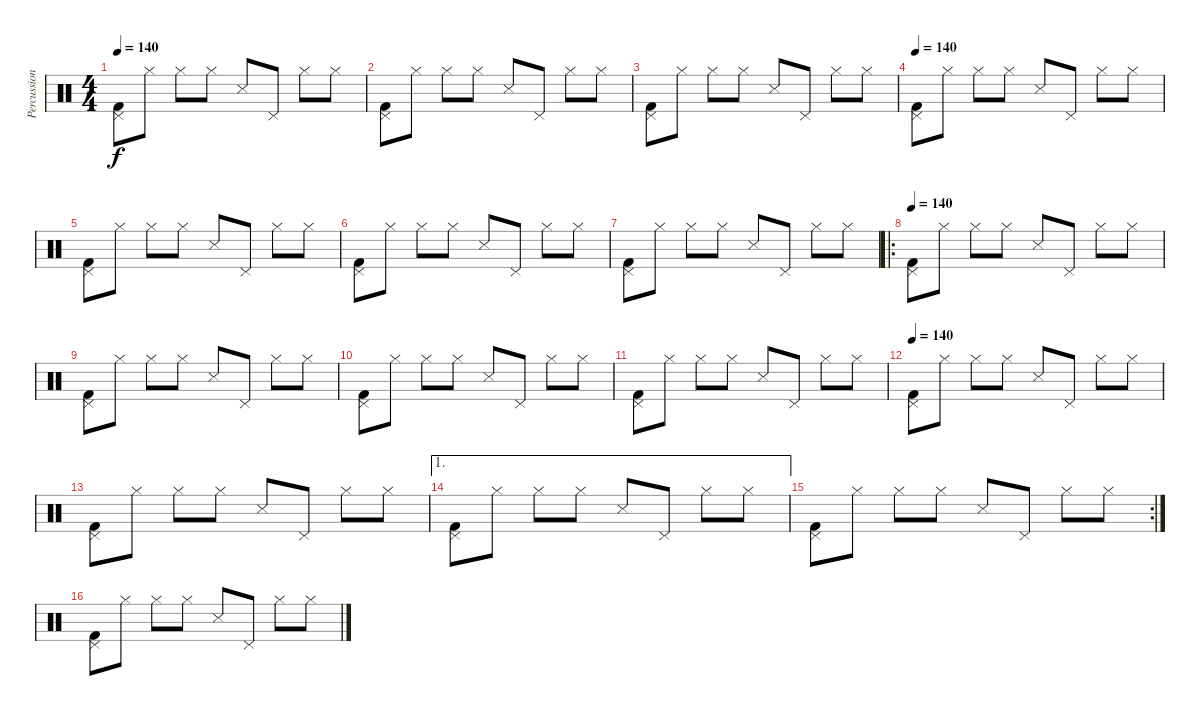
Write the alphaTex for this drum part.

\track ("Percussion" "Percussion") {instrument percussion}
\staff {score}
\articulation defaults
\ts (4 4)
\tempo 140
\clef neutral
\ks c
("Pedal Hi-Hat (hit)" "Kick (hit) 2").8{dy f volume 9} "Hi-Hat (closed)".8 "Hi-Hat (closed)".8 "Hi-Hat (closed)".8 "Snare (side stick) 3".8{volume 13} "Pedal Hi-Hat (hit)".8{volume 9} "Hi-Hat (closed)".8 "Hi-Hat (closed)".8 |
("Pedal Hi-Hat (hit)" "Kick (hit) 2").8{volume 9} "Hi-Hat (closed)".8 "Hi-Hat (closed)".8 "Hi-Hat (closed)".8 "Snare (side stick) 3".8{volume 13} "Pedal Hi-Hat (hit)".8{volume 9} "Hi-Hat (closed)".8 "Hi-Hat (closed)".8 |
("Pedal Hi-Hat (hit)" "Kick (hit) 2").8{volume 9} "Hi-Hat (closed)".8 "Hi-Hat (closed)".8 "Hi-Hat (closed)".8 "Snare (side stick) 3".8{volume 13} "Pedal Hi-Hat (hit)".8{volume 9} "Hi-Hat (closed)".8 "Hi-Hat (closed)".8 |
\tempo 140
("Pedal Hi-Hat (hit)" "Kick (hit) 2").8{volume 9} "Hi-Hat (closed)".8 "Hi-Hat (closed)".8 "Hi-Hat (closed)".8 "Snare (side stick) 3".8{volume 13} "Pedal Hi-Hat (hit)".8{volume 9} "Hi-Hat (closed)".8 "Hi-Hat (closed)".8 |
("Pedal Hi-Hat (hit)" "Kick (hit) 2").8{volume 9} "Hi-Hat (closed)".8 "Hi-Hat (closed)".8 "Hi-Hat (closed)".8 "Snare (side stick) 3".8{volume 13} "Pedal Hi-Hat (hit)".8{volume 9} "Hi-Hat (closed)".8 "Hi-Hat (closed)".8 |
("Pedal Hi-Hat (hit)" "Kick (hit) 2").8{volume 9} "Hi-Hat (closed)".8 "Hi-Hat (closed)".8 "Hi-Hat (closed)".8 "Snare (side stick) 3".8{volume 13} "Pedal Hi-Hat (hit)".8{volume 9} "Hi-Hat (closed)".8 "Hi-Hat (closed)".8 |
("Pedal Hi-Hat (hit)" "Kick (hit) 2").8{volume 9} "Hi-Hat (closed)".8 "Hi-Hat (closed)".8 "Hi-Hat (closed)".8 "Snare (side stick) 3".8{volume 13} "Pedal Hi-Hat (hit)".8{volume 9} "Hi-Hat (closed)".8 "Hi-Hat (closed)".8 |
\ro
\tempo 140
("Pedal Hi-Hat (hit)" "Kick (hit) 2").8{volume 9} "Hi-Hat (closed)".8 "Hi-Hat (closed)".8 "Hi-Hat (closed)".8 "Snare (side stick) 3".8{volume 13} "Pedal Hi-Hat (hit)".8{volume 9} "Hi-Hat (closed)".8 "Hi-Hat (closed)".8 |
("Pedal Hi-Hat (hit)" "Kick (hit) 2").8{volume 9} "Hi-Hat (closed)".8 "Hi-Hat (closed)".8 "Hi-Hat (closed)".8 "Snare (side stick) 3".8{volume 13} "Pedal Hi-Hat (hit)".8{volume 9} "Hi-Hat (closed)".8 "Hi-Hat (closed)".8 |
("Pedal Hi-Hat (hit)" "Kick (hit) 2").8{volume 9} "Hi-Hat (closed)".8 "Hi-Hat (closed)".8 "Hi-Hat (closed)".8 "Snare (side stick) 3".8{volume 13} "Pedal Hi-Hat (hit)".8{volume 9} "Hi-Hat (closed)".8 "Hi-Hat (closed)".8 |
("Pedal Hi-Hat (hit)" "Kick (hit) 2").8{volume 9} "Hi-Hat (closed)".8 "Hi-Hat (closed)".8 "Hi-Hat (closed)".8 "Snare (side stick) 3".8{volume 13} "Pedal Hi-Hat (hit)".8{volume 9} "Hi-Hat (closed)".8 "Hi-Hat (closed)".8 |
\tempo 140
("Pedal Hi-Hat (hit)" "Kick (hit) 2").8{volume 9} "Hi-Hat (closed)".8 "Hi-Hat (closed)".8 "Hi-Hat (closed)".8 "Snare (side stick) 3".8{volume 13} "Pedal Hi-Hat (hit)".8{volume 9} "Hi-Hat (closed)".8 "Hi-Hat (closed)".8 |
("Pedal Hi-Hat (hit)" "Kick (hit) 2").8{volume 9} "Hi-Hat (closed)".8 "Hi-Hat (closed)".8 "Hi-Hat (closed)".8 "Snare (side stick) 3".8{volume 13} "Pedal Hi-Hat (hit)".8{volume 9} "Hi-Hat (closed)".8 "Hi-Hat (closed)".8 |
\ae 1
("Pedal Hi-Hat (hit)" "Kick (hit) 2").8{volume 9} "Hi-Hat (closed)".8 "Hi-Hat (closed)".8 "Hi-Hat (closed)".8 "Snare (side stick) 3".8{volume 13} "Pedal Hi-Hat (hit)".8{volume 9} "Hi-Hat (closed)".8 "Hi-Hat (closed)".8 |
\rc 2
("Pedal Hi-Hat (hit)" "Kick (hit) 2").8{volume 9} "Hi-Hat (closed)".8 "Hi-Hat (closed)".8 "Hi-Hat (closed)".8 "Snare (side stick) 3".8{volume 13} "Pedal Hi-Hat (hit)".8{volume 9} "Hi-Hat (closed)".8 "Hi-Hat (closed)".8 |
("Pedal Hi-Hat (hit)" "Kick (hit) 2").8{volume 9} "Hi-Hat (closed)".8 "Hi-Hat (closed)".8 "Hi-Hat (closed)".8 "Snare (side stick) 3".8{volume 13} "Pedal Hi-Hat (hit)".8{volume 9} "Hi-Hat (closed)".8 "Hi-Hat (closed)".8
